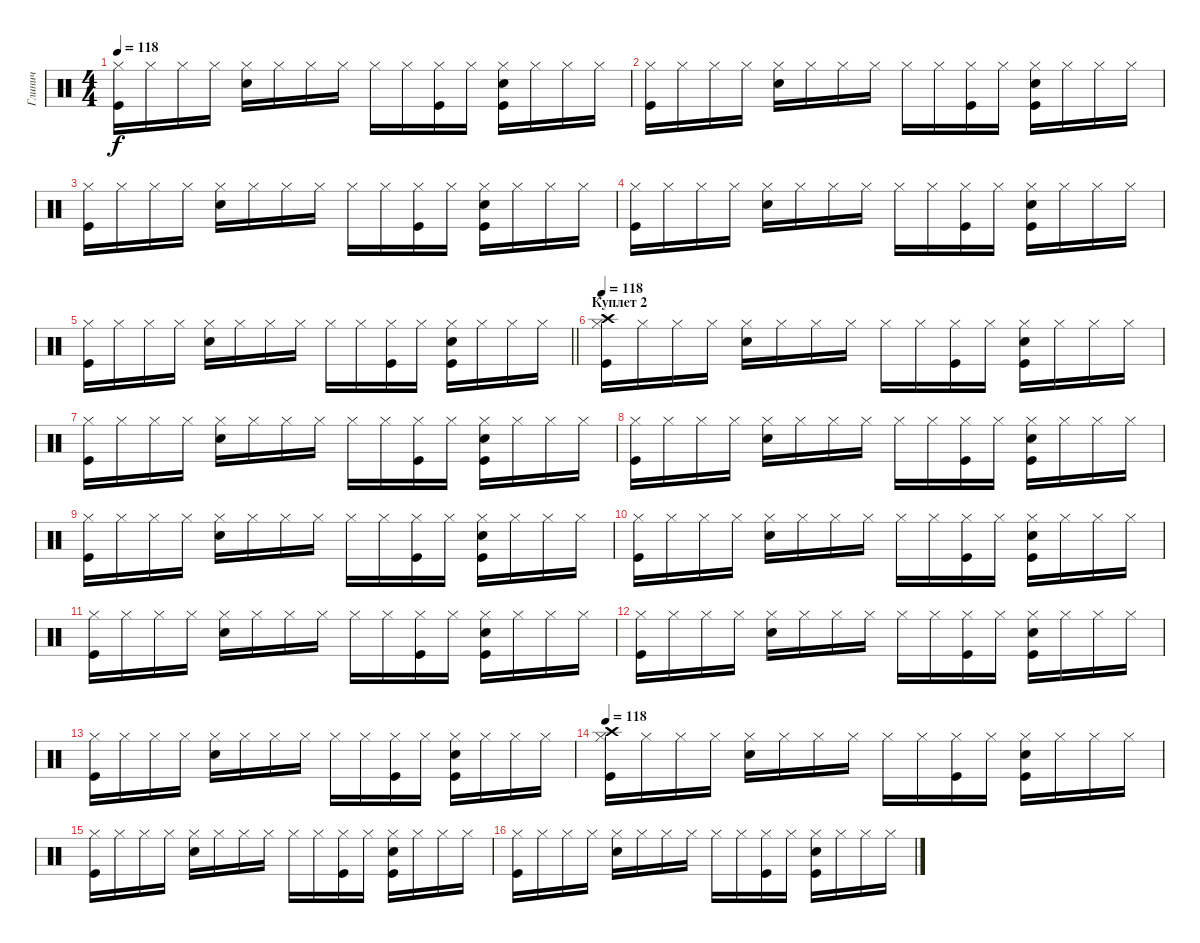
\track ("Глинич" "Глинич") {instrument percussion}
\staff {score}
\articulation defaults
\ts (4 4)
\tempo 118
\clef neutral
\ks c
("Hi-Hat (closed)" "Kick (hit)").16{dy f} "Hi-Hat (closed)".16 "Hi-Hat (closed)".16 "Hi-Hat (closed)".16 ("Hi-Hat (closed)" "Snare (hit) 2").16 "Hi-Hat (closed)".16 "Hi-Hat (closed)".16 "Hi-Hat (closed)".16 "Hi-Hat (closed)".16 "Hi-Hat (closed)".16 ("Hi-Hat (closed)" "Kick (hit)").16 "Hi-Hat (closed)".16 ("Hi-Hat (closed)" "Snare (hit) 2" "Kick (hit)").16 "Hi-Hat (closed)".16 "Hi-Hat (closed)".16 "Hi-Hat (closed)".16 |
("Hi-Hat (closed)" "Kick (hit)").16 "Hi-Hat (closed)".16 "Hi-Hat (closed)".16 "Hi-Hat (closed)".16 ("Hi-Hat (closed)" "Snare (hit) 2").16 "Hi-Hat (closed)".16 "Hi-Hat (closed)".16 "Hi-Hat (closed)".16 "Hi-Hat (closed)".16 "Hi-Hat (closed)".16 ("Hi-Hat (closed)" "Kick (hit)").16 "Hi-Hat (closed)".16 ("Hi-Hat (closed)" "Snare (hit) 2" "Kick (hit)").16 "Hi-Hat (closed)".16 "Hi-Hat (closed)".16 "Hi-Hat (closed)".16 |
("Hi-Hat (closed)" "Kick (hit)").16 "Hi-Hat (closed)".16 "Hi-Hat (closed)".16 "Hi-Hat (closed)".16 ("Hi-Hat (closed)" "Snare (hit) 2").16 "Hi-Hat (closed)".16 "Hi-Hat (closed)".16 "Hi-Hat (closed)".16 "Hi-Hat (closed)".16 "Hi-Hat (closed)".16 ("Hi-Hat (closed)" "Kick (hit)").16 "Hi-Hat (closed)".16 ("Hi-Hat (closed)" "Snare (hit) 2" "Kick (hit)").16 "Hi-Hat (closed)".16 "Hi-Hat (closed)".16 "Hi-Hat (closed)".16 |
("Hi-Hat (closed)" "Kick (hit)").16 "Hi-Hat (closed)".16 "Hi-Hat (closed)".16 "Hi-Hat (closed)".16 ("Hi-Hat (closed)" "Snare (hit) 2").16 "Hi-Hat (closed)".16 "Hi-Hat (closed)".16 "Hi-Hat (closed)".16 "Hi-Hat (closed)".16 "Hi-Hat (closed)".16 ("Hi-Hat (closed)" "Kick (hit)").16 "Hi-Hat (closed)".16 ("Hi-Hat (closed)" "Snare (hit) 2" "Kick (hit)").16 "Hi-Hat (closed)".16 "Hi-Hat (closed)".16 "Hi-Hat (closed)".16 |
\barLineRight lightlight
("Hi-Hat (closed)" "Kick (hit)").16 "Hi-Hat (closed)".16 "Hi-Hat (closed)".16 "Hi-Hat (closed)".16 ("Hi-Hat (closed)" "Snare (hit) 2").16 "Hi-Hat (closed)".16 "Hi-Hat (closed)".16 "Hi-Hat (closed)".16 "Hi-Hat (closed)".16 "Hi-Hat (closed)".16 ("Hi-Hat (closed)" "Kick (hit)").16 "Hi-Hat (closed)".16 ("Hi-Hat (closed)" "Snare (hit) 2" "Kick (hit)").16 "Hi-Hat (closed)".16 "Hi-Hat (closed)".16 "Hi-Hat (closed)".16 |
\section ("" "Куплет 2")
\tempo 118
("Hi-Hat (closed)" "Kick (hit)" "Crash high (hit)").16 "Hi-Hat (closed)".16 "Hi-Hat (closed)".16 "Hi-Hat (closed)".16 ("Hi-Hat (closed)" "Snare (hit) 2").16 "Hi-Hat (closed)".16 "Hi-Hat (closed)".16 "Hi-Hat (closed)".16 "Hi-Hat (closed)".16 "Hi-Hat (closed)".16 ("Hi-Hat (closed)" "Kick (hit)").16 "Hi-Hat (closed)".16 ("Hi-Hat (closed)" "Snare (hit) 2" "Kick (hit)").16 "Hi-Hat (closed)".16 "Hi-Hat (closed)".16 "Hi-Hat (closed)".16 |
("Hi-Hat (closed)" "Kick (hit)").16 "Hi-Hat (closed)".16 "Hi-Hat (closed)".16 "Hi-Hat (closed)".16 ("Hi-Hat (closed)" "Snare (hit) 2").16 "Hi-Hat (closed)".16 "Hi-Hat (closed)".16 "Hi-Hat (closed)".16 "Hi-Hat (closed)".16 "Hi-Hat (closed)".16 ("Hi-Hat (closed)" "Kick (hit)").16 "Hi-Hat (closed)".16 ("Hi-Hat (closed)" "Snare (hit) 2" "Kick (hit)").16 "Hi-Hat (closed)".16 "Hi-Hat (closed)".16 "Hi-Hat (closed)".16 |
("Hi-Hat (closed)" "Kick (hit)").16 "Hi-Hat (closed)".16 "Hi-Hat (closed)".16 "Hi-Hat (closed)".16 ("Hi-Hat (closed)" "Snare (hit) 2").16 "Hi-Hat (closed)".16 "Hi-Hat (closed)".16 "Hi-Hat (closed)".16 "Hi-Hat (closed)".16 "Hi-Hat (closed)".16 ("Hi-Hat (closed)" "Kick (hit)").16 "Hi-Hat (closed)".16 ("Hi-Hat (closed)" "Snare (hit) 2" "Kick (hit)").16 "Hi-Hat (closed)".16 "Hi-Hat (closed)".16 "Hi-Hat (closed)".16 |
("Hi-Hat (closed)" "Kick (hit)").16 "Hi-Hat (closed)".16 "Hi-Hat (closed)".16 "Hi-Hat (closed)".16 ("Hi-Hat (closed)" "Snare (hit) 2").16 "Hi-Hat (closed)".16 "Hi-Hat (closed)".16 "Hi-Hat (closed)".16 "Hi-Hat (closed)".16 "Hi-Hat (closed)".16 ("Hi-Hat (closed)" "Kick (hit)").16 "Hi-Hat (closed)".16 ("Hi-Hat (closed)" "Snare (hit) 2" "Kick (hit)").16 "Hi-Hat (closed)".16 "Hi-Hat (closed)".16 "Hi-Hat (closed)".16 |
("Hi-Hat (closed)" "Kick (hit)").16 "Hi-Hat (closed)".16 "Hi-Hat (closed)".16 "Hi-Hat (closed)".16 ("Hi-Hat (closed)" "Snare (hit) 2").16 "Hi-Hat (closed)".16 "Hi-Hat (closed)".16 "Hi-Hat (closed)".16 "Hi-Hat (closed)".16 "Hi-Hat (closed)".16 ("Hi-Hat (closed)" "Kick (hit)").16 "Hi-Hat (closed)".16 ("Hi-Hat (closed)" "Snare (hit) 2" "Kick (hit)").16 "Hi-Hat (closed)".16 "Hi-Hat (closed)".16 "Hi-Hat (closed)".16 |
("Hi-Hat (closed)" "Kick (hit)").16 "Hi-Hat (closed)".16 "Hi-Hat (closed)".16 "Hi-Hat (closed)".16 ("Hi-Hat (closed)" "Snare (hit) 2").16 "Hi-Hat (closed)".16 "Hi-Hat (closed)".16 "Hi-Hat (closed)".16 "Hi-Hat (closed)".16 "Hi-Hat (closed)".16 ("Hi-Hat (closed)" "Kick (hit)").16 "Hi-Hat (closed)".16 ("Hi-Hat (closed)" "Snare (hit) 2" "Kick (hit)").16 "Hi-Hat (closed)".16 "Hi-Hat (closed)".16 "Hi-Hat (closed)".16 |
("Hi-Hat (closed)" "Kick (hit)").16 "Hi-Hat (closed)".16 "Hi-Hat (closed)".16 "Hi-Hat (closed)".16 ("Hi-Hat (closed)" "Snare (hit) 2").16 "Hi-Hat (closed)".16 "Hi-Hat (closed)".16 "Hi-Hat (closed)".16 "Hi-Hat (closed)".16 "Hi-Hat (closed)".16 ("Hi-Hat (closed)" "Kick (hit)").16 "Hi-Hat (closed)".16 ("Hi-Hat (closed)" "Snare (hit) 2" "Kick (hit)").16 "Hi-Hat (closed)".16 "Hi-Hat (closed)".16 "Hi-Hat (closed)".16 |
("Hi-Hat (closed)" "Kick (hit)").16 "Hi-Hat (closed)".16 "Hi-Hat (closed)".16 "Hi-Hat (closed)".16 ("Hi-Hat (closed)" "Snare (hit) 2").16 "Hi-Hat (closed)".16 "Hi-Hat (closed)".16 "Hi-Hat (closed)".16 "Hi-Hat (closed)".16 "Hi-Hat (closed)".16 ("Hi-Hat (closed)" "Kick (hit)").16 "Hi-Hat (closed)".16 ("Hi-Hat (closed)" "Snare (hit) 2" "Kick (hit)").16 "Hi-Hat (closed)".16 "Hi-Hat (closed)".16 "Hi-Hat (closed)".16 |
\tempo 118
("Hi-Hat (closed)" "Kick (hit)" "Crash high (hit)").16 "Hi-Hat (closed)".16 "Hi-Hat (closed)".16 "Hi-Hat (closed)".16 ("Hi-Hat (closed)" "Snare (hit) 2").16 "Hi-Hat (closed)".16 "Hi-Hat (closed)".16 "Hi-Hat (closed)".16 "Hi-Hat (closed)".16 "Hi-Hat (closed)".16 ("Hi-Hat (closed)" "Kick (hit)").16 "Hi-Hat (closed)".16 ("Hi-Hat (closed)" "Snare (hit) 2" "Kick (hit)").16 "Hi-Hat (closed)".16 "Hi-Hat (closed)".16 "Hi-Hat (closed)".16 |
("Hi-Hat (closed)" "Kick (hit)").16 "Hi-Hat (closed)".16 "Hi-Hat (closed)".16 "Hi-Hat (closed)".16 ("Hi-Hat (closed)" "Snare (hit) 2").16 "Hi-Hat (closed)".16 "Hi-Hat (closed)".16 "Hi-Hat (closed)".16 "Hi-Hat (closed)".16 "Hi-Hat (closed)".16 ("Hi-Hat (closed)" "Kick (hit)").16 "Hi-Hat (closed)".16 ("Hi-Hat (closed)" "Snare (hit) 2" "Kick (hit)").16 "Hi-Hat (closed)".16 "Hi-Hat (closed)".16 "Hi-Hat (closed)".16 |
("Hi-Hat (closed)" "Kick (hit)").16 "Hi-Hat (closed)".16 "Hi-Hat (closed)".16 "Hi-Hat (closed)".16 ("Hi-Hat (closed)" "Snare (hit) 2").16 "Hi-Hat (closed)".16 "Hi-Hat (closed)".16 "Hi-Hat (closed)".16 "Hi-Hat (closed)".16 "Hi-Hat (closed)".16 ("Hi-Hat (closed)" "Kick (hit)").16 "Hi-Hat (closed)".16 ("Hi-Hat (closed)" "Snare (hit) 2" "Kick (hit)").16 "Hi-Hat (closed)".16 "Hi-Hat (closed)".16 "Hi-Hat (closed)".16
